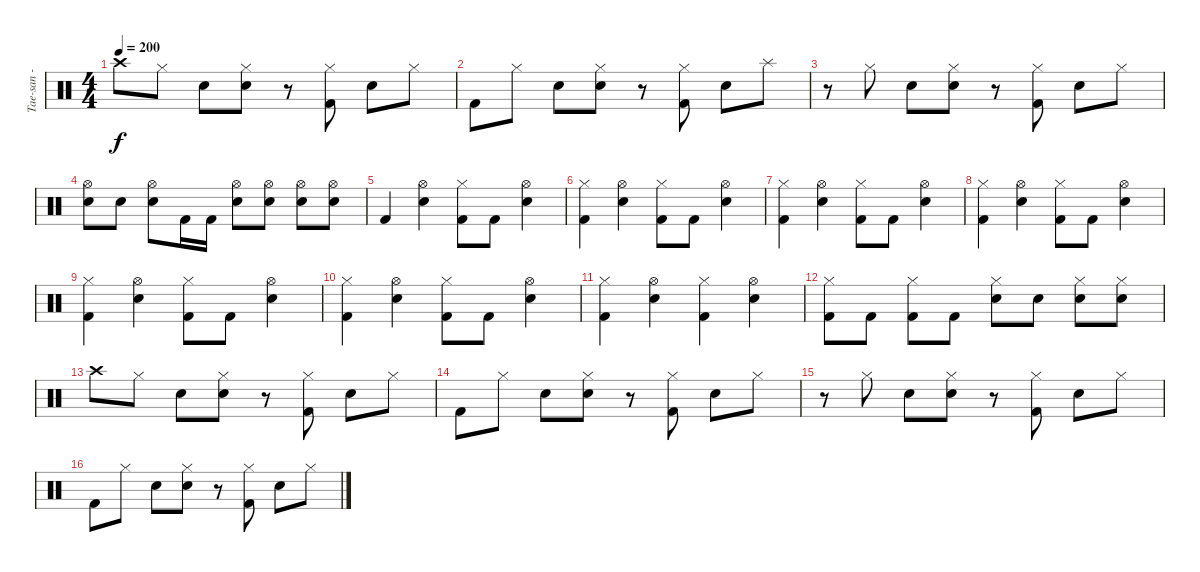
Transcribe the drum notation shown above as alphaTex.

\track ("Tae-san - Drums" "Tae-san - ") {instrument percussion}
\staff {score}
\articulation defaults
\ts (4 4)
\tempo 200
\clef neutral
\ks c "Crash high (hit)".8{dy f} "Hi-Hat (closed)".8 "Electric Snare (hit)".8
("Electric Snare (hit)" "Hi-Hat (closed)").8 r.8 ("Kick (hit) 2" "Hi-Hat (closed)").8 "Electric Snare (hit)".8 "Hi-Hat (closed)".8 |
"Kick (hit) 2".8 "Hi-Hat (closed)".8 "Electric Snare (hit)".8 ("Electric Snare (hit)" "Hi-Hat (closed)").8 r.8 ("Kick (hit) 2" "Hi-Hat (closed)").8 "Electric Snare (hit)".8 "Splash (hit)".8 |
r.8 "Hi-Hat (closed)".8 "Electric Snare (hit)".8 ("Electric Snare (hit)" "Hi-Hat (closed)").8 r.8 ("Kick (hit) 2" "Hi-Hat (closed)").8 "Electric Snare (hit)".8 "Hi-Hat (closed)".8 |
("Electric Snare (hit)" "Hi-Hat (open)").8 "Electric Snare (hit)".8 ("Electric Snare (hit)" "Hi-Hat (open)").8 "Kick (hit) 2".16 "Kick (hit) 2".16 ("Electric Snare (hit)" "Hi-Hat (open)").8 ("Electric Snare (hit)" "Hi-Hat (open)").8 ("Electric Snare (hit)" "Hi-Hat (open)").8 ("Electric Snare (hit)" "Hi-Hat (open)").8 |
"Kick (hit) 2".4 ("Electric Snare (hit)" "Hi-Hat (open)").4 ("Kick (hit) 2" "Hi-Hat (closed)").8 "Kick (hit) 2".8 ("Electric Snare (hit)" "Hi-Hat (open)").4 |
("Kick (hit) 2" "Hi-Hat (closed)").4 ("Electric Snare (hit)" "Hi-Hat (open)").4 ("Kick (hit) 2" "Hi-Hat (closed)").8 "Kick (hit) 2".8 ("Electric Snare (hit)" "Hi-Hat (open)").4 |
("Kick (hit) 2" "Hi-Hat (closed)").4 ("Electric Snare (hit)" "Hi-Hat (open)").4 ("Kick (hit) 2" "Hi-Hat (closed)").8 "Kick (hit) 2".8 ("Electric Snare (hit)" "Hi-Hat (open)").4 |
("Kick (hit) 2" "Hi-Hat (closed)").4 ("Electric Snare (hit)" "Hi-Hat (open)").4 ("Kick (hit) 2" "Hi-Hat (closed)").8 "Kick (hit) 2".8 ("Electric Snare (hit)" "Hi-Hat (open)").4 |
("Kick (hit) 2" "Hi-Hat (closed)").4 ("Electric Snare (hit)" "Hi-Hat (open)").4 ("Kick (hit) 2" "Hi-Hat (closed)").8 "Kick (hit) 2".8 ("Electric Snare (hit)" "Hi-Hat (open)").4 |
("Kick (hit) 2" "Hi-Hat (closed)").4 ("Electric Snare (hit)" "Hi-Hat (open)").4 ("Kick (hit) 2" "Hi-Hat (closed)").8 "Kick (hit) 2".8 ("Electric Snare (hit)" "Hi-Hat (open)").4 |
("Kick (hit) 2" "Hi-Hat (closed)").4 ("Electric Snare (hit)" "Hi-Hat (open)").4 ("Kick (hit) 2" "Hi-Hat (closed)").4 ("Electric Snare (hit)" "Hi-Hat (open)").4 |
("Kick (hit) 2" "Hi-Hat (closed)").8 "Kick (hit) 2".8 ("Kick (hit) 2" "Hi-Hat (closed)").8 "Kick (hit) 2".8 ("Electric Snare (hit)" "Hi-Hat (closed)").8 "Electric Snare (hit)".8 ("Electric Snare (hit)" "Hi-Hat (closed)").8 ("Electric Snare (hit)" "Hi-Hat (closed)").8 |
"Crash high (hit)".8 "Hi-Hat (closed)".8 "Electric Snare (hit)".8 ("Electric Snare (hit)" "Hi-Hat (closed)").8 r.8 ("Kick (hit) 2" "Hi-Hat (closed)").8 "Electric Snare (hit)".8 "Hi-Hat (closed)".8 |
"Kick (hit) 2".8 "Hi-Hat (closed)".8 "Electric Snare (hit)".8 ("Electric Snare (hit)" "Hi-Hat (closed)").8 r.8 ("Kick (hit) 2" "Hi-Hat (closed)").8 "Electric Snare (hit)".8 "Hi-Hat (closed)".8 |
r.8 "Hi-Hat (closed)".8 "Electric Snare (hit)".8 ("Electric Snare (hit)" "Hi-Hat (closed)").8 r.8 ("Kick (hit) 2" "Hi-Hat (closed)").8 "Electric Snare (hit)".8 "Hi-Hat (closed)".8 |
"Kick (hit) 2".8 "Hi-Hat (closed)".8 "Electric Snare (hit)".8 ("Electric Snare (hit)" "Hi-Hat (closed)").8 r.8 ("Kick (hit) 2" "Hi-Hat (closed)").8 "Electric Snare (hit)".8 "Hi-Hat (closed)".8
